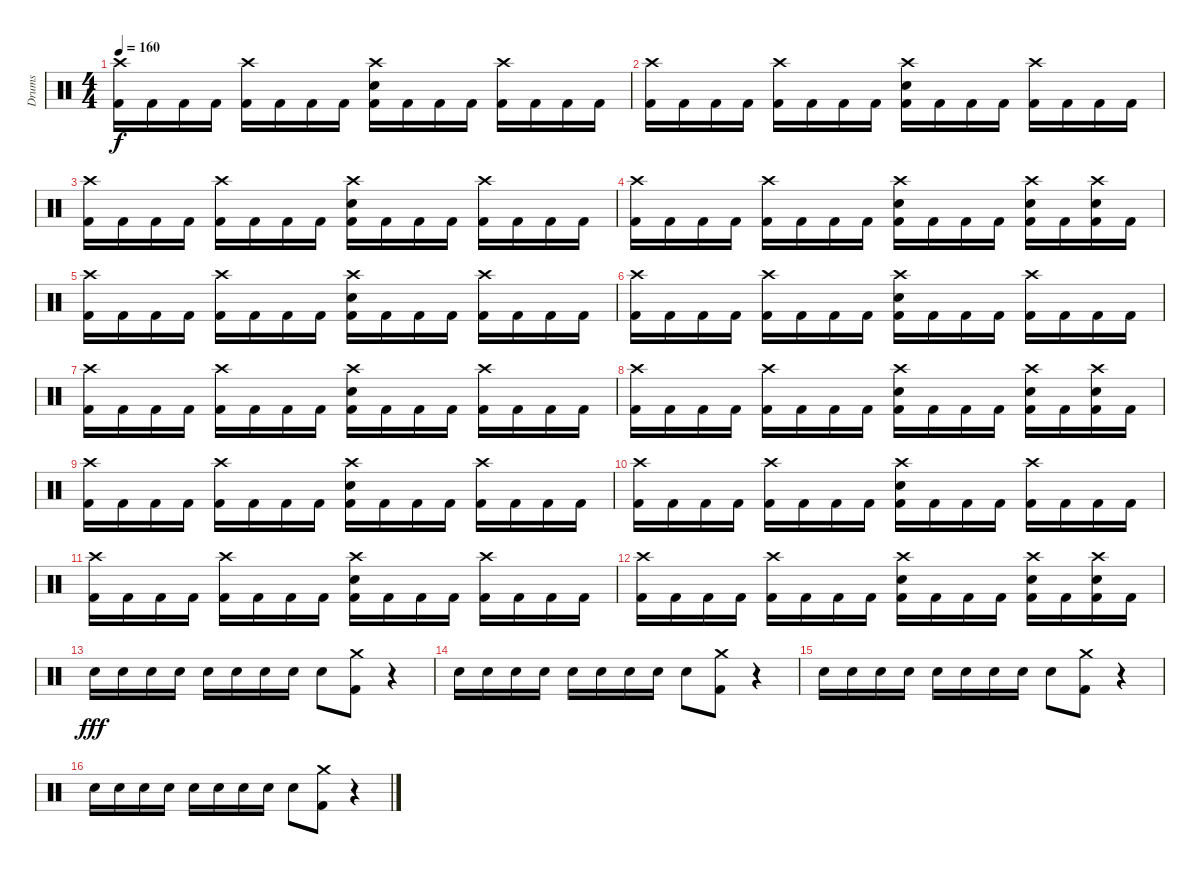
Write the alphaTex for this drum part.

\track ("Drums" "Drums") {instrument percussion}
\staff {score}
\articulation defaults
\ts (4 4)
\tempo 160
\clef neutral
\ks c
("Crash high (hit)" "Kick (hit) 2").16{dy f} "Kick (hit) 2".16 "Kick (hit) 2".16 "Kick (hit) 2".16 ("Crash high (hit)" "Kick (hit) 2").16 "Kick (hit) 2".16 "Kick (hit) 2".16 "Kick (hit) 2".16 ("Crash high (hit)" "Snare (hit) 2" "Kick (hit) 2").16 "Kick (hit) 2".16 "Kick (hit) 2".16 "Kick (hit) 2".16 ("Crash high (hit)" "Kick (hit) 2").16 "Kick (hit) 2".16 "Kick (hit) 2".16 "Kick (hit) 2".16 |
("Crash high (hit)" "Kick (hit) 2").16 "Kick (hit) 2".16 "Kick (hit) 2".16 "Kick (hit) 2".16 ("Crash high (hit)" "Kick (hit) 2").16 "Kick (hit) 2".16 "Kick (hit) 2".16 "Kick (hit) 2".16 ("Crash high (hit)" "Snare (hit) 2" "Kick (hit) 2").16 "Kick (hit) 2".16 "Kick (hit) 2".16 "Kick (hit) 2".16 ("Crash high (hit)" "Kick (hit) 2").16 "Kick (hit) 2".16 "Kick (hit) 2".16 "Kick (hit) 2".16 |
("Crash high (hit)" "Kick (hit) 2").16 "Kick (hit) 2".16 "Kick (hit) 2".16 "Kick (hit) 2".16 ("Crash high (hit)" "Kick (hit) 2").16 "Kick (hit) 2".16 "Kick (hit) 2".16 "Kick (hit) 2".16 ("Crash high (hit)" "Snare (hit) 2" "Kick (hit) 2").16 "Kick (hit) 2".16 "Kick (hit) 2".16 "Kick (hit) 2".16 ("Crash high (hit)" "Kick (hit) 2").16 "Kick (hit) 2".16 "Kick (hit) 2".16 "Kick (hit) 2".16 |
("Crash high (hit)" "Kick (hit) 2").16 "Kick (hit) 2".16 "Kick (hit) 2".16 "Kick (hit) 2".16 ("Crash high (hit)" "Kick (hit) 2").16 "Kick (hit) 2".16 "Kick (hit) 2".16 "Kick (hit) 2".16 ("Crash high (hit)" "Snare (hit) 2" "Kick (hit) 2").16 "Kick (hit) 2".16 "Kick (hit) 2".16 "Kick (hit) 2".16 ("Crash high (hit)" "Snare (hit) 2" "Kick (hit) 2").16 "Kick (hit) 2".16 ("Crash high (hit)" "Snare (hit) 2" "Kick (hit) 2").16 "Kick (hit) 2".16 |
("Crash high (hit)" "Kick (hit) 2").16 "Kick (hit) 2".16 "Kick (hit) 2".16 "Kick (hit) 2".16 ("Crash high (hit)" "Kick (hit) 2").16 "Kick (hit) 2".16 "Kick (hit) 2".16 "Kick (hit) 2".16 ("Crash high (hit)" "Snare (hit) 2" "Kick (hit) 2").16 "Kick (hit) 2".16 "Kick (hit) 2".16 "Kick (hit) 2".16 ("Crash high (hit)" "Kick (hit) 2").16 "Kick (hit) 2".16 "Kick (hit) 2".16 "Kick (hit) 2".16 |
("Crash high (hit)" "Kick (hit) 2").16 "Kick (hit) 2".16 "Kick (hit) 2".16 "Kick (hit) 2".16 ("Crash high (hit)" "Kick (hit) 2").16 "Kick (hit) 2".16 "Kick (hit) 2".16 "Kick (hit) 2".16 ("Crash high (hit)" "Snare (hit) 2" "Kick (hit) 2").16 "Kick (hit) 2".16 "Kick (hit) 2".16 "Kick (hit) 2".16 ("Crash high (hit)" "Kick (hit) 2").16 "Kick (hit) 2".16 "Kick (hit) 2".16 "Kick (hit) 2".16 |
("Crash high (hit)" "Kick (hit) 2").16 "Kick (hit) 2".16 "Kick (hit) 2".16 "Kick (hit) 2".16 ("Crash high (hit)" "Kick (hit) 2").16 "Kick (hit) 2".16 "Kick (hit) 2".16 "Kick (hit) 2".16 ("Crash high (hit)" "Snare (hit) 2" "Kick (hit) 2").16 "Kick (hit) 2".16 "Kick (hit) 2".16 "Kick (hit) 2".16 ("Crash high (hit)" "Kick (hit) 2").16 "Kick (hit) 2".16 "Kick (hit) 2".16 "Kick (hit) 2".16 |
("Crash high (hit)" "Kick (hit) 2").16 "Kick (hit) 2".16 "Kick (hit) 2".16 "Kick (hit) 2".16 ("Crash high (hit)" "Kick (hit) 2").16 "Kick (hit) 2".16 "Kick (hit) 2".16 "Kick (hit) 2".16 ("Crash high (hit)" "Snare (hit) 2" "Kick (hit) 2").16 "Kick (hit) 2".16 "Kick (hit) 2".16 "Kick (hit) 2".16 ("Crash high (hit)" "Snare (hit) 2" "Kick (hit) 2").16 "Kick (hit) 2".16 ("Crash high (hit)" "Snare (hit) 2" "Kick (hit) 2").16 "Kick (hit) 2".16 |
("Crash high (hit)" "Kick (hit) 2").16 "Kick (hit) 2".16 "Kick (hit) 2".16 "Kick (hit) 2".16 ("Crash high (hit)" "Kick (hit) 2").16 "Kick (hit) 2".16 "Kick (hit) 2".16 "Kick (hit) 2".16 ("Crash high (hit)" "Snare (hit) 2" "Kick (hit) 2").16 "Kick (hit) 2".16 "Kick (hit) 2".16 "Kick (hit) 2".16 ("Crash high (hit)" "Kick (hit) 2").16 "Kick (hit) 2".16 "Kick (hit) 2".16 "Kick (hit) 2".16 |
("Crash high (hit)" "Kick (hit) 2").16 "Kick (hit) 2".16 "Kick (hit) 2".16 "Kick (hit) 2".16 ("Crash high (hit)" "Kick (hit) 2").16 "Kick (hit) 2".16 "Kick (hit) 2".16 "Kick (hit) 2".16 ("Crash high (hit)" "Snare (hit) 2" "Kick (hit) 2").16 "Kick (hit) 2".16 "Kick (hit) 2".16 "Kick (hit) 2".16 ("Crash high (hit)" "Kick (hit) 2").16 "Kick (hit) 2".16 "Kick (hit) 2".16 "Kick (hit) 2".16 |
("Crash high (hit)" "Kick (hit) 2").16 "Kick (hit) 2".16 "Kick (hit) 2".16 "Kick (hit) 2".16 ("Crash high (hit)" "Kick (hit) 2").16 "Kick (hit) 2".16 "Kick (hit) 2".16 "Kick (hit) 2".16 ("Crash high (hit)" "Snare (hit) 2" "Kick (hit) 2").16 "Kick (hit) 2".16 "Kick (hit) 2".16 "Kick (hit) 2".16 ("Crash high (hit)" "Kick (hit) 2").16 "Kick (hit) 2".16 "Kick (hit) 2".16 "Kick (hit) 2".16 |
("Crash high (hit)" "Kick (hit) 2").16 "Kick (hit) 2".16 "Kick (hit) 2".16 "Kick (hit) 2".16 ("Crash high (hit)" "Kick (hit) 2").16 "Kick (hit) 2".16 "Kick (hit) 2".16 "Kick (hit) 2".16 ("Crash high (hit)" "Snare (hit) 2" "Kick (hit) 2").16 "Kick (hit) 2".16 "Kick (hit) 2".16 "Kick (hit) 2".16 ("Crash high (hit)" "Snare (hit) 2" "Kick (hit) 2").16 "Kick (hit) 2".16 ("Crash high (hit)" "Snare (hit) 2" "Kick (hit) 2").16 "Kick (hit) 2".16 |
"Electric Snare (hit)".16{dy fff} "Electric Snare (hit)".16 "Electric Snare (hit)".16 "Electric Snare (hit)".16 "Electric Snare (hit)".16 "Electric Snare (hit)".16 "Electric Snare (hit)".16 "Electric Snare (hit)".16 "Electric Snare (hit)".8 ("Crash medium (hit)" "Kick (hit) 2").8 r.4 |
"Electric Snare (hit)".16 "Electric Snare (hit)".16 "Electric Snare (hit)".16 "Electric Snare (hit)".16 "Electric Snare (hit)".16 "Electric Snare (hit)".16 "Electric Snare (hit)".16 "Electric Snare (hit)".16 "Electric Snare (hit)".8 ("Crash medium (hit)" "Kick (hit) 2").8 r.4 |
"Electric Snare (hit)".16 "Electric Snare (hit)".16 "Electric Snare (hit)".16 "Electric Snare (hit)".16 "Electric Snare (hit)".16 "Electric Snare (hit)".16 "Electric Snare (hit)".16 "Electric Snare (hit)".16 "Electric Snare (hit)".8 ("Crash medium (hit)" "Kick (hit) 2").8 r.4 |
"Electric Snare (hit)".16 "Electric Snare (hit)".16 "Electric Snare (hit)".16 "Electric Snare (hit)".16 "Electric Snare (hit)".16 "Electric Snare (hit)".16 "Electric Snare (hit)".16 "Electric Snare (hit)".16 "Electric Snare (hit)".8 ("Crash medium (hit)" "Kick (hit) 2").8 r.4
